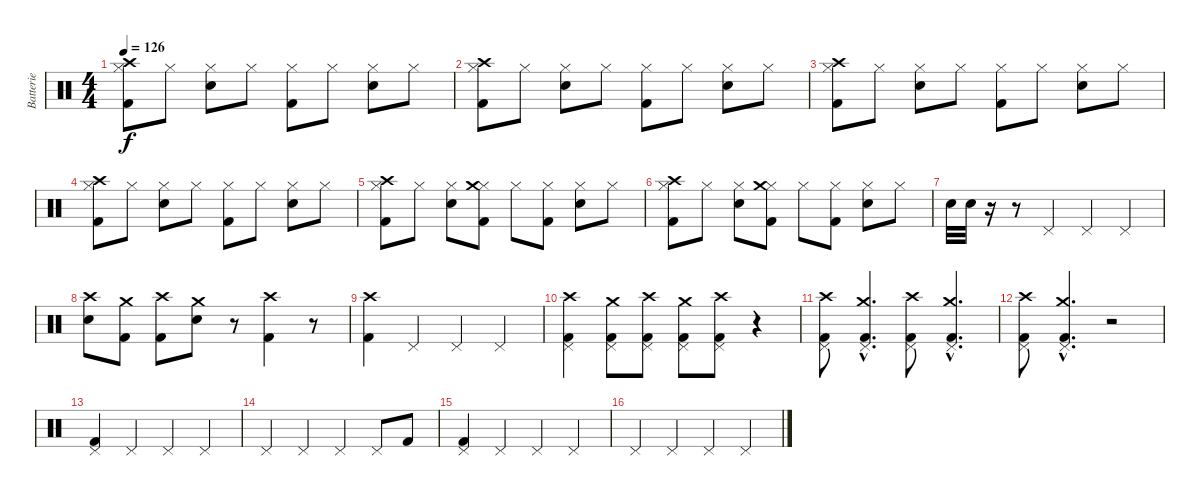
\track ("Batterie" "Batterie") {instrument percussion}
\staff {score}
\articulation defaults
\ts (4 4)
\tempo 126
\clef neutral
\ks c
("Hi-Hat (closed)" "Crash high (hit)" "Kick (hit) 2").8{dy f} "Hi-Hat (closed)".8 ("Hi-Hat (closed)" "Snare (hit) 2").8 "Hi-Hat (closed)".8 ("Hi-Hat (closed)" "Kick (hit) 2").8 "Hi-Hat (closed)".8 ("Hi-Hat (closed)" "Snare (hit) 2").8 "Hi-Hat (closed)".8 |
("Hi-Hat (closed)" "Crash high (hit)" "Kick (hit) 2").8 "Hi-Hat (closed)".8 ("Hi-Hat (closed)" "Snare (hit) 2").8 "Hi-Hat (closed)".8 ("Hi-Hat (closed)" "Kick (hit) 2").8 "Hi-Hat (closed)".8 ("Hi-Hat (closed)" "Snare (hit) 2").8 "Hi-Hat (closed)".8 |
("Hi-Hat (closed)" "Crash high (hit)" "Kick (hit) 2").8 "Hi-Hat (closed)".8 ("Hi-Hat (closed)" "Snare (hit) 2").8 "Hi-Hat (closed)".8 ("Hi-Hat (closed)" "Kick (hit) 2").8 "Hi-Hat (closed)".8 ("Hi-Hat (closed)" "Snare (hit) 2").8 "Hi-Hat (closed)".8 |
("Hi-Hat (closed)" "Crash high (hit)" "Kick (hit) 2").8 "Hi-Hat (closed)".8 ("Hi-Hat (closed)" "Snare (hit) 2").8 "Hi-Hat (closed)".8 ("Hi-Hat (closed)" "Kick (hit) 2").8 "Hi-Hat (closed)".8 ("Hi-Hat (closed)" "Snare (hit) 2").8 "Hi-Hat (closed)".8 |
("Hi-Hat (closed)" "Crash high (hit)" "Kick (hit) 2").8 "Hi-Hat (closed)".8 ("Hi-Hat (closed)" "Snare (hit) 2").8 ("Hi-Hat (closed)" "Crash medium (hit)" "Kick (hit) 2").8 "Hi-Hat (closed)".8 ("Hi-Hat (closed)" "Kick (hit) 2").8 ("Hi-Hat (closed)" "Snare (hit) 2").8 "Hi-Hat (closed)".8 |
("Hi-Hat (closed)" "Crash high (hit)" "Kick (hit) 2").8 "Hi-Hat (closed)".8 ("Hi-Hat (closed)" "Snare (hit) 2").8 ("Hi-Hat (closed)" "Crash medium (hit)" "Kick (hit) 2").8 "Hi-Hat (closed)".8 ("Hi-Hat (closed)" "Kick (hit) 2").8 ("Hi-Hat (closed)" "Snare (hit) 2").8 "Hi-Hat (closed)".8 |
"Snare (hit) 2".32 "Snare (hit) 2".32 r.16 r.8 "Pedal Hi-Hat (hit)".4 "Pedal Hi-Hat (hit)".4 "Pedal Hi-Hat (hit)".4 |
("Crash high (hit)" "Snare (hit) 2").8 ("Crash medium (hit)" "Kick (hit) 2").8 ("Crash high (hit)" "Kick (hit) 2").8 ("Crash medium (hit)" "Snare (hit) 2").8 r.8 ("Crash high (hit)" "Kick (hit) 2").4 r.8 |
("Crash high (hit)" "Kick (hit) 2").4 "Pedal Hi-Hat (hit)".4 "Pedal Hi-Hat (hit)".4 "Pedal Hi-Hat (hit)".4 |
("Pedal Hi-Hat (hit)" "Crash high (hit)" "Kick (hit) 2").4 ("Pedal Hi-Hat (hit)" "Crash medium (hit)" "Kick (hit) 2").8 ("Pedal Hi-Hat (hit)" "Crash high (hit)" "Kick (hit) 2").8 ("Pedal Hi-Hat (hit)" "Crash medium (hit)" "Kick (hit) 2").8 ("Pedal Hi-Hat (hit)" "Crash high (hit)" "Kick (hit) 2").8 r.4 |
("Pedal Hi-Hat (hit)" "Crash high (hit)" "Kick (hit) 2").8 ("Pedal Hi-Hat (hit)"{hac} "Crash medium (hit)"{hac} "Kick (hit) 2"{hac}).4{d} ("Pedal Hi-Hat (hit)" "Crash high (hit)" "Kick (hit) 2").8 ("Pedal Hi-Hat (hit)"{hac} "Crash medium (hit)"{hac} "Kick (hit) 2"{hac}).4{d} |
("Pedal Hi-Hat (hit)" "Crash high (hit)" "Kick (hit) 2").8 ("Pedal Hi-Hat (hit)"{hac} "Crash medium (hit)"{hac} "Kick (hit) 2"{hac}).4{d} r.2 |
("Pedal Hi-Hat (hit)" "Kick (hit) 2").4 "Pedal Hi-Hat (hit)".4 "Pedal Hi-Hat (hit)".4 "Pedal Hi-Hat (hit)".4 |
"Pedal Hi-Hat (hit)".4 "Pedal Hi-Hat (hit)".4 "Pedal Hi-Hat (hit)".4 "Pedal Hi-Hat (hit)".8 "Kick (hit) 2".8 |
("Pedal Hi-Hat (hit)" "Kick (hit) 2").4 "Pedal Hi-Hat (hit)".4 "Pedal Hi-Hat (hit)".4 "Pedal Hi-Hat (hit)".4 |
"Pedal Hi-Hat (hit)".4 "Pedal Hi-Hat (hit)".4 "Pedal Hi-Hat (hit)".4 "Pedal Hi-Hat (hit)".4
